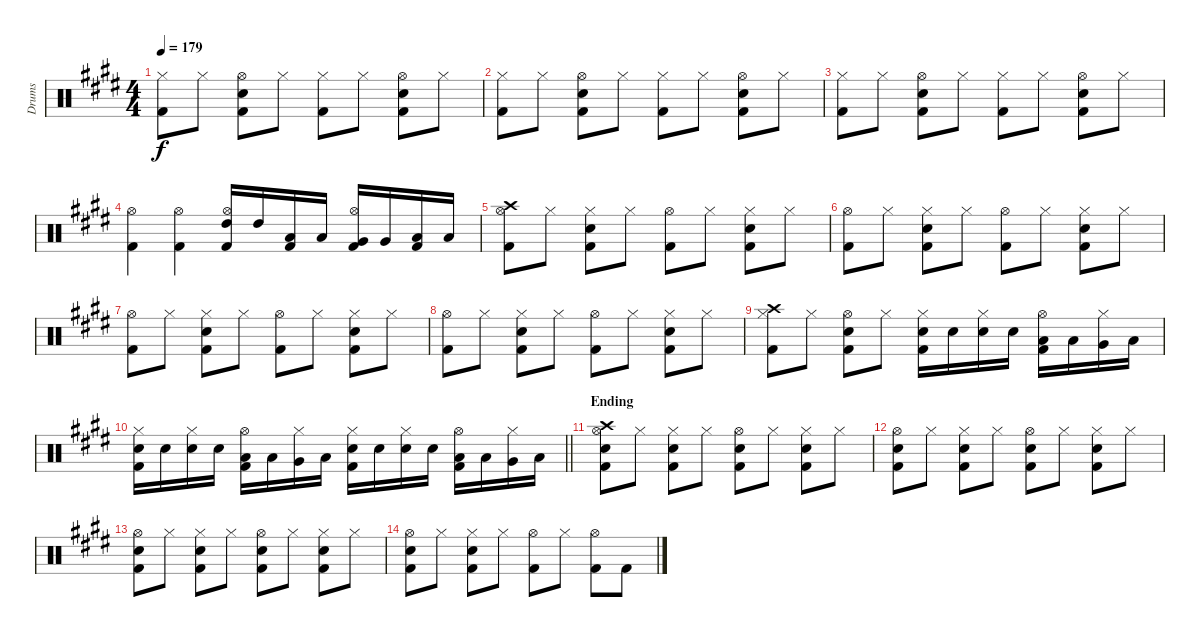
\track ("Drums" "Drums") {instrument percussion}
\staff {score}
\articulation defaults
\ts (4 4)
\tempo 179
\clef neutral
\ks e
("Hi-Hat (closed)" "Kick (hit) 2").8{dy f} "Hi-Hat (closed)".8 ("Hi-Hat (open)" "Snare (hit) 2" "Kick (hit) 2").8 "Hi-Hat (closed)".8 ("Hi-Hat (closed)" "Kick (hit) 2").8 "Hi-Hat (closed)".8 ("Hi-Hat (open)" "Snare (hit) 2" "Kick (hit) 2").8 "Hi-Hat (closed)".8 |
("Hi-Hat (closed)" "Kick (hit) 2").8 "Hi-Hat (closed)".8 ("Hi-Hat (open)" "Snare (hit) 2" "Kick (hit) 2").8 "Hi-Hat (closed)".8 ("Hi-Hat (closed)" "Kick (hit) 2").8 "Hi-Hat (closed)".8 ("Hi-Hat (open)" "Snare (hit) 2" "Kick (hit) 2").8 "Hi-Hat (closed)".8 |
("Hi-Hat (closed)" "Kick (hit) 2").8 "Hi-Hat (closed)".8 ("Hi-Hat (open)" "Snare (hit) 2" "Kick (hit) 2").8 "Hi-Hat (closed)".8 ("Hi-Hat (closed)" "Kick (hit) 2").8 "Hi-Hat (closed)".8 ("Hi-Hat (open)" "Snare (hit) 2" "Kick (hit) 2").8 "Hi-Hat (closed)".8 |
("Hi-Hat (open)" "Kick (hit) 2").4 ("Hi-Hat (open)" "Kick (hit) 2").4 ("Hi-Hat (open)" "High Tom (hit)" "Kick (hit) 2").16 "High Tom (hit)".16 ("Low Tom (hit)" "Kick (hit) 2").16 "Low Tom (hit)".16 ("Hi-Hat (open)" "Very Low Tom (hit)" "Kick (hit) 2").16 "Very Low Tom (hit)".16 ("Low Floor Tom (hit)" "Kick (hit) 2").16 "Low Floor Tom (hit)".16 |
("Hi-Hat (open)" "Crash high (hit)" "Kick (hit) 2").8 "Hi-Hat (closed)".8 ("Hi-Hat (closed)" "Snare (hit) 2" "Kick (hit) 2").8 "Hi-Hat (closed)".8 ("Hi-Hat (open)" "Kick (hit) 2").8 "Hi-Hat (closed)".8 ("Hi-Hat (closed)" "Snare (hit) 2" "Kick (hit) 2").8 "Hi-Hat (closed)".8 |
("Hi-Hat (open)" "Kick (hit) 2").8 "Hi-Hat (closed)".8 ("Hi-Hat (closed)" "Snare (hit) 2" "Kick (hit) 2").8 "Hi-Hat (closed)".8 ("Hi-Hat (open)" "Kick (hit) 2").8 "Hi-Hat (closed)".8 ("Hi-Hat (closed)" "Snare (hit) 2" "Kick (hit) 2").8 "Hi-Hat (closed)".8 |
("Hi-Hat (open)" "Kick (hit) 2").8 "Hi-Hat (closed)".8 ("Hi-Hat (closed)" "Snare (hit) 2" "Kick (hit) 2").8 "Hi-Hat (closed)".8 ("Hi-Hat (open)" "Kick (hit) 2").8 "Hi-Hat (closed)".8 ("Hi-Hat (closed)" "Snare (hit) 2" "Kick (hit) 2").8 "Hi-Hat (closed)".8 |
("Hi-Hat (open)" "Kick (hit) 2").8 "Hi-Hat (closed)".8 ("Hi-Hat (closed)" "Snare (hit) 2" "Kick (hit) 2").8 "Hi-Hat (closed)".8 ("Hi-Hat (open)" "Kick (hit) 2").8 "Hi-Hat (closed)".8 ("Hi-Hat (closed)" "Snare (hit) 2" "Kick (hit) 2").8 "Hi-Hat (closed)".8 |
("Hi-Hat (closed)" "Crash high (hit)" "Kick (hit) 2").8 "Hi-Hat (closed)".8 ("Hi-Hat (open)" "Snare (hit) 2" "Kick (hit) 2").8 "Hi-Hat (closed)".8 ("Hi-Hat (closed)" "Snare (hit) 2" "Kick (hit) 2").16 "Snare (hit) 2".16 ("Hi-Hat (closed)" "Snare (hit) 2").16 "Snare (hit) 2".16 ("Hi-Hat (open)" "Low Tom (hit)" "Kick (hit) 2").16 "Low Tom (hit)".16 ("Hi-Hat (closed)" "Very Low Tom (hit)").16 "Low Floor Tom (hit)".16 |
\barLineRight lightlight
("Hi-Hat (closed)" "Snare (hit) 2" "Kick (hit) 2").16 "Snare (hit) 2".16 ("Hi-Hat (closed)" "Snare (hit) 2").16 "Snare (hit) 2".16 ("Hi-Hat (open)" "Low Tom (hit)" "Kick (hit) 2").16 "Low Tom (hit)".16 ("Hi-Hat (closed)" "Very Low Tom (hit)").16 "Low Floor Tom (hit)".16 ("Hi-Hat (closed)" "Snare (hit) 2" "Kick (hit) 2").16 "Snare (hit) 2".16 ("Hi-Hat (closed)" "Snare (hit) 2").16 "Snare (hit) 2".16 ("Hi-Hat (open)" "Low Tom (hit)" "Kick (hit) 2").16 "Low Tom (hit)".16 ("Hi-Hat (closed)" "Very Low Tom (hit)").16 "Low Floor Tom (hit)".16 |
\section ("" "Ending")
("Hi-Hat (open)" "Snare (hit) 2" "Crash high (hit)" "Kick (hit) 2").8 "Hi-Hat (closed)".8 ("Hi-Hat (closed)" "Snare (hit) 2" "Kick (hit) 2").8 "Hi-Hat (closed)".8 ("Hi-Hat (open)" "Snare (hit) 2" "Kick (hit) 2").8 "Hi-Hat (closed)".8 ("Hi-Hat (closed)" "Snare (hit) 2" "Kick (hit) 2").8 "Hi-Hat (closed)".8 |
("Hi-Hat (open)" "Snare (hit) 2" "Kick (hit) 2").8 "Hi-Hat (closed)".8 ("Hi-Hat (closed)" "Snare (hit) 2" "Kick (hit) 2").8 "Hi-Hat (closed)".8 ("Hi-Hat (open)" "Snare (hit) 2" "Kick (hit) 2").8 "Hi-Hat (closed)".8 ("Hi-Hat (closed)" "Snare (hit) 2" "Kick (hit) 2").8 "Hi-Hat (closed)".8 |
("Hi-Hat (open)" "Snare (hit) 2" "Kick (hit) 2").8 "Hi-Hat (closed)".8 ("Hi-Hat (closed)" "Snare (hit) 2" "Kick (hit) 2").8 "Hi-Hat (closed)".8 ("Hi-Hat (open)" "Snare (hit) 2" "Kick (hit) 2").8 "Hi-Hat (closed)".8 ("Hi-Hat (closed)" "Snare (hit) 2" "Kick (hit) 2").8 "Hi-Hat (closed)".8 |
("Hi-Hat (open)" "Snare (hit) 2" "Kick (hit) 2").8 "Hi-Hat (closed)".8 ("Hi-Hat (closed)" "Snare (hit) 2" "Kick (hit) 2").8 "Hi-Hat (closed)".8 ("Hi-Hat (open)" "Kick (hit) 2").8 "Hi-Hat (closed)".8 ("Hi-Hat (open)" "Kick (hit) 2").8 "Kick (hit) 2".8
